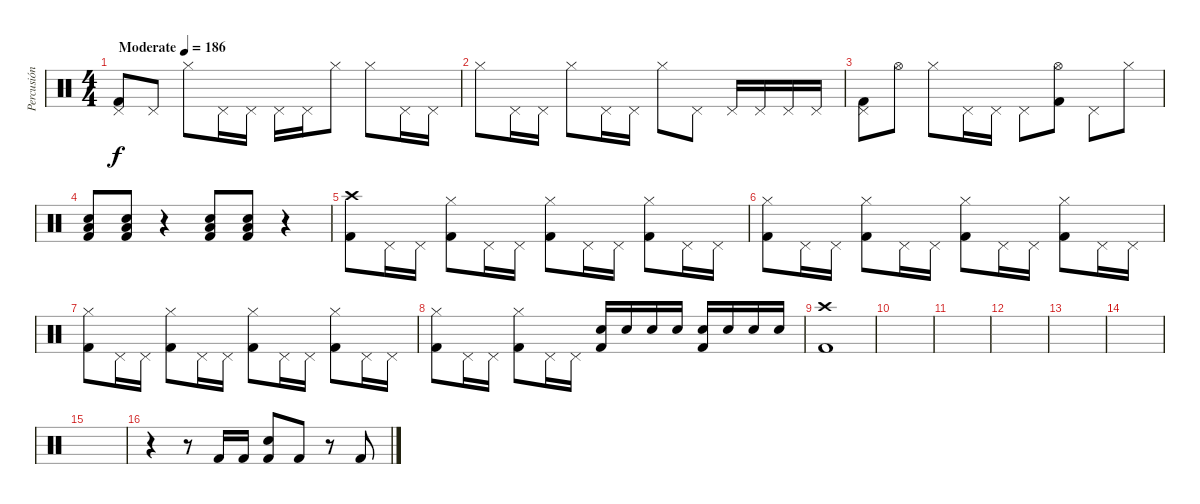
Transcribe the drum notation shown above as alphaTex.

\track ("Percusión" "Percusión") {instrument percussion}
\staff {score}
\articulation defaults
\ts (4 4)
\tempo (186 "Moderate")
\clef neutral
\ks c
("Kick (hit) 2" "Pedal Hi-Hat (hit)").8{dy f volume 9} "Pedal Hi-Hat (hit)".8 "Hi-Hat (closed)".8 "Pedal Hi-Hat (hit)".16 "Pedal Hi-Hat (hit)".16 "Pedal Hi-Hat (hit)".16 "Pedal Hi-Hat (hit)".16 "Hi-Hat (closed)".8 "Hi-Hat (closed)".8 "Pedal Hi-Hat (hit)".16 "Pedal Hi-Hat (hit)".16 |
"Hi-Hat (closed)".8 "Pedal Hi-Hat (hit)".16 "Pedal Hi-Hat (hit)".16 "Hi-Hat (closed)".8 "Pedal Hi-Hat (hit)".16 "Pedal Hi-Hat (hit)".16 "Hi-Hat (closed)".8 "Pedal Hi-Hat (hit)".8 "Pedal Hi-Hat (hit)".16 "Pedal Hi-Hat (hit)".16 "Pedal Hi-Hat (hit)".16 "Pedal Hi-Hat (hit)".16 |
("Kick (hit) 2" "Pedal Hi-Hat (hit)").8{volume 16} "Hi-Hat (open)".8 "Hi-Hat (closed)".8 "Pedal Hi-Hat (hit)".16 "Pedal Hi-Hat (hit)".16 "Pedal Hi-Hat (hit)".8 ("Kick (hit) 2" "Hi-Hat (open)").8 "Pedal Hi-Hat (hit)".8 "Hi-Hat (closed)".8 |
("Kick (hit) 2" "Low Floor Tom (hit)" "Snare (hit) 2").8 ("Kick (hit) 2" "Low Floor Tom (hit)" "Snare (hit) 2").8 r.4 ("Kick (hit) 2" "Low Floor Tom (hit)" "Snare (hit) 2").8 ("Kick (hit) 2" "Low Floor Tom (hit)" "Snare (hit) 2").8 r.4 |
("Kick (hit) 2" "Crash high (hit)").8 "Pedal Hi-Hat (hit)".16 "Pedal Hi-Hat (hit)".16 ("Kick (hit) 2" "Hi-Hat (closed)").8 "Pedal Hi-Hat (hit)".16 "Pedal Hi-Hat (hit)".16 ("Kick (hit) 2" "Hi-Hat (closed)").8 "Pedal Hi-Hat (hit)".16 "Pedal Hi-Hat (hit)".16 ("Kick (hit) 2" "Hi-Hat (closed)").8 "Pedal Hi-Hat (hit)".16 "Pedal Hi-Hat (hit)".16 |
("Kick (hit) 2" "Hi-Hat (closed)").8 "Pedal Hi-Hat (hit)".16 "Pedal Hi-Hat (hit)".16 ("Kick (hit) 2" "Hi-Hat (closed)").8 "Pedal Hi-Hat (hit)".16 "Pedal Hi-Hat (hit)".16 ("Kick (hit) 2" "Hi-Hat (closed)").8 "Pedal Hi-Hat (hit)".16 "Pedal Hi-Hat (hit)".16 ("Kick (hit) 2" "Hi-Hat (closed)").8 "Pedal Hi-Hat (hit)".16 "Pedal Hi-Hat (hit)".16 |
("Kick (hit) 2" "Hi-Hat (closed)").8 "Pedal Hi-Hat (hit)".16 "Pedal Hi-Hat (hit)".16 ("Kick (hit) 2" "Hi-Hat (closed)").8 "Pedal Hi-Hat (hit)".16 "Pedal Hi-Hat (hit)".16 ("Kick (hit) 2" "Hi-Hat (closed)").8 "Pedal Hi-Hat (hit)".16 "Pedal Hi-Hat (hit)".16 ("Kick (hit) 2" "Hi-Hat (closed)").8 "Pedal Hi-Hat (hit)".16 "Pedal Hi-Hat (hit)".16 |
("Kick (hit) 2" "Hi-Hat (closed)").8 "Pedal Hi-Hat (hit)".16 "Pedal Hi-Hat (hit)".16 ("Kick (hit) 2" "Hi-Hat (closed)").8 "Pedal Hi-Hat (hit)".16 "Pedal Hi-Hat (hit)".16 ("Kick (hit) 2" "Snare (hit) 2").16 "Snare (hit) 2".16 "Snare (hit) 2".16 "Snare (hit) 2".16 ("Kick (hit) 2" "Snare (hit) 2").16 "Snare (hit) 2".16 "Snare (hit) 2".16 "Snare (hit) 2".16 |
("Kick (hit) 2" "Crash high (hit)").1 |
|
|
|
|
|
|
r.4 r.8 "Kick (hit) 2".16 "Kick (hit) 2".16 ("Kick (hit) 2" "Snare (hit) 2").8 "Kick (hit) 2".8 r.8 "Kick (hit) 2".8
